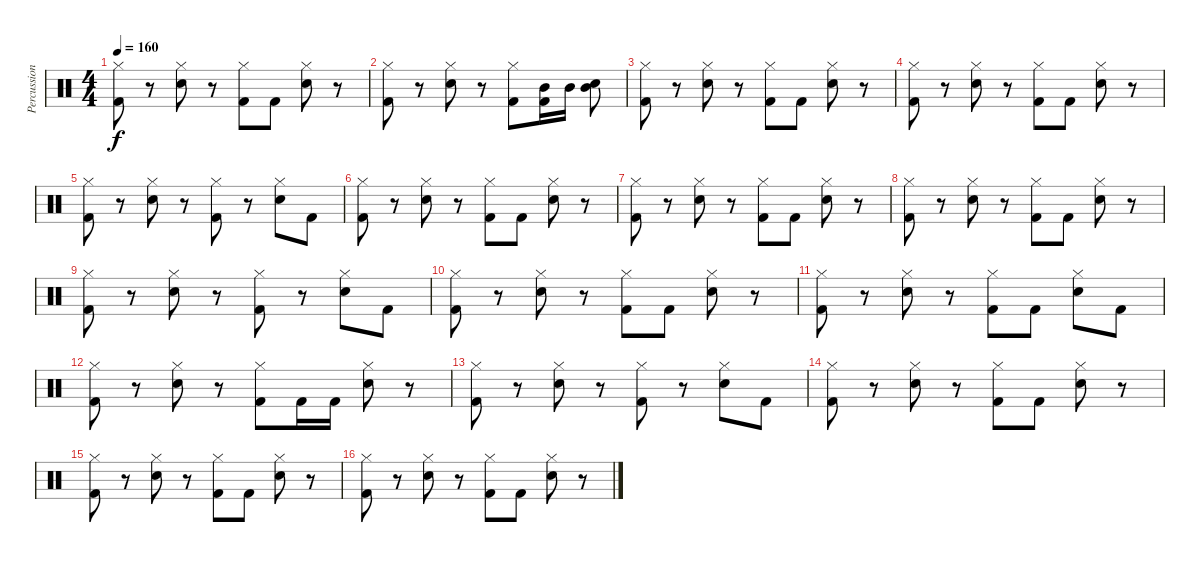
\track ("Percussion" "Percussion") {instrument percussion}
\staff {score}
\articulation defaults
\ts (4 4)
\tempo 160
\clef neutral
\ks c
("Hi-Hat (closed)" "Kick (hit) 2").8{dy f} r.8 ("Hi-Hat (closed)" "Snare (hit) 2").8 r.8 ("Hi-Hat (closed)" "Kick (hit) 2").8 "Kick (hit) 2".8 ("Hi-Hat (closed)" "Snare (hit) 2").8 r.8 |
("Hi-Hat (closed)" "Kick (hit) 2").8 r.8 ("Hi-Hat (closed)" "Snare (hit) 2").8 r.8 ("Hi-Hat (closed)" "Kick (hit) 2").8 ("Mid Tom (hit)" "Kick (hit) 2").16 "Mid Tom (hit)".16 ("Mid Tom (hit)" "Snare (hit) 2").8 |
("Hi-Hat (closed)" "Kick (hit) 2").8 r.8 ("Hi-Hat (closed)" "Snare (hit) 2").8 r.8 ("Hi-Hat (closed)" "Kick (hit) 2").8 "Kick (hit) 2".8 ("Hi-Hat (closed)" "Snare (hit) 2").8 r.8 |
("Hi-Hat (closed)" "Kick (hit) 2").8 r.8 ("Hi-Hat (closed)" "Snare (hit) 2").8 r.8 ("Hi-Hat (closed)" "Kick (hit) 2").8 "Kick (hit) 2".8 ("Hi-Hat (closed)" "Snare (hit) 2").8 r.8 |
("Hi-Hat (closed)" "Kick (hit) 2").8 r.8 ("Hi-Hat (closed)" "Snare (hit) 2").8 r.8 ("Hi-Hat (closed)" "Kick (hit) 2").8 r.8 ("Hi-Hat (closed)" "Snare (hit) 2").8 "Kick (hit) 2".8 |
("Hi-Hat (closed)" "Kick (hit) 2").8 r.8 ("Hi-Hat (closed)" "Snare (hit) 2").8 r.8 ("Hi-Hat (closed)" "Kick (hit) 2").8 "Kick (hit) 2".8 ("Hi-Hat (closed)" "Snare (hit) 2").8 r.8 |
("Hi-Hat (closed)" "Kick (hit) 2").8 r.8 ("Hi-Hat (closed)" "Snare (hit) 2").8 r.8 ("Hi-Hat (closed)" "Kick (hit) 2").8 "Kick (hit) 2".8 ("Hi-Hat (closed)" "Snare (hit) 2").8 r.8 |
("Hi-Hat (closed)" "Kick (hit) 2").8 r.8 ("Hi-Hat (closed)" "Snare (hit) 2").8 r.8 ("Hi-Hat (closed)" "Kick (hit) 2").8 "Kick (hit) 2".8 ("Hi-Hat (closed)" "Snare (hit) 2").8 r.8 |
("Hi-Hat (closed)" "Kick (hit) 2").8 r.8 ("Hi-Hat (closed)" "Snare (hit) 2").8 r.8 ("Hi-Hat (closed)" "Kick (hit) 2").8 r.8 ("Hi-Hat (closed)" "Snare (hit) 2").8 "Kick (hit) 2".8 |
("Hi-Hat (closed)" "Kick (hit) 2").8 r.8 ("Hi-Hat (closed)" "Snare (hit) 2").8 r.8 ("Hi-Hat (closed)" "Kick (hit) 2").8 "Kick (hit) 2".8 ("Hi-Hat (closed)" "Snare (hit) 2").8 r.8 |
("Hi-Hat (closed)" "Kick (hit) 2").8 r.8 ("Hi-Hat (closed)" "Snare (hit) 2").8 r.8 ("Hi-Hat (closed)" "Kick (hit) 2").8 "Kick (hit) 2".8 ("Hi-Hat (closed)" "Snare (hit) 2").8 "Kick (hit) 2".8 |
("Hi-Hat (closed)" "Kick (hit) 2").8 r.8 ("Hi-Hat (closed)" "Snare (hit) 2").8 r.8 ("Hi-Hat (closed)" "Kick (hit) 2").8 "Kick (hit) 2".16 "Kick (hit) 2".16 ("Hi-Hat (closed)" "Snare (hit) 2").8 r.8 |
("Hi-Hat (closed)" "Kick (hit) 2").8 r.8 ("Hi-Hat (closed)" "Snare (hit) 2").8 r.8 ("Hi-Hat (closed)" "Kick (hit) 2").8 r.8 ("Hi-Hat (closed)" "Snare (hit) 2").8 "Kick (hit) 2".8 |
("Hi-Hat (closed)" "Kick (hit) 2").8 r.8 ("Hi-Hat (closed)" "Snare (hit) 2").8 r.8 ("Hi-Hat (closed)" "Kick (hit) 2").8 "Kick (hit) 2".8 ("Hi-Hat (closed)" "Snare (hit) 2").8 r.8 |
("Hi-Hat (closed)" "Kick (hit) 2").8 r.8 ("Hi-Hat (closed)" "Snare (hit) 2").8 r.8 ("Hi-Hat (closed)" "Kick (hit) 2").8 "Kick (hit) 2".8 ("Hi-Hat (closed)" "Snare (hit) 2").8 r.8 |
("Hi-Hat (closed)" "Kick (hit) 2").8 r.8 ("Hi-Hat (closed)" "Snare (hit) 2").8 r.8 ("Hi-Hat (closed)" "Kick (hit) 2").8 "Kick (hit) 2".8 ("Hi-Hat (closed)" "Snare (hit) 2").8 r.8
